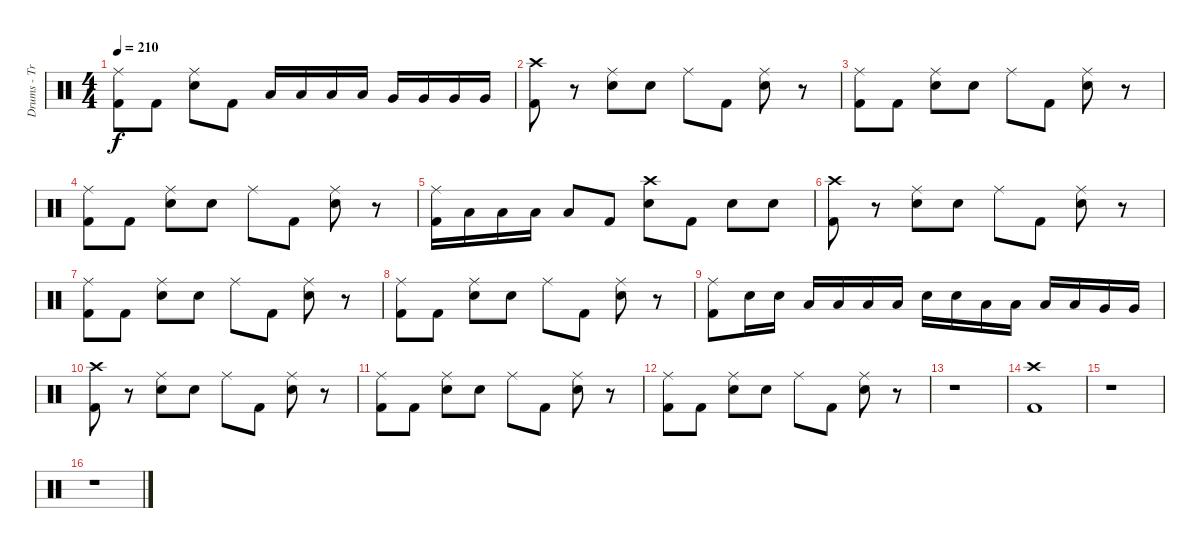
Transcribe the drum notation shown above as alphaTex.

\track ("Drums - Travis Barker" "Drums - Tr") {instrument percussion}
\staff {score}
\articulation defaults
\ts (4 4)
\tempo 210
\clef neutral
\ks c
("Ride (middle)" "Kick (hit) 2").8{dy f} "Kick (hit) 2".8 ("Ride (middle)" "Electric Snare (hit)").8 "Kick (hit) 2".8 "Low Tom (hit)".16 "Low Tom (hit)".16 "Low Tom (hit)".16 "Low Tom (hit)".16 "Very Low Tom (hit)".16 "Very Low Tom (hit)".16 "Very Low Tom (hit)".16 "Very Low Tom (hit)".16 |
("Crash high (hit)" "Kick (hit) 2").8 r.8 ("Ride (middle)" "Electric Snare (hit)").8 "Electric Snare (hit)".8 "Ride (middle)".8 "Kick (hit) 2".8 ("Ride (middle)" "Electric Snare (hit)").8 r.8 |
("Ride (middle)" "Kick (hit) 2").8 "Kick (hit) 2".8 ("Ride (middle)" "Electric Snare (hit)").8 "Electric Snare (hit)".8 "Ride (middle)".8 "Kick (hit) 2".8 ("Ride (middle)" "Electric Snare (hit)").8 r.8 |
("Ride (middle)" "Kick (hit) 2").8 "Kick (hit) 2".8 ("Ride (middle)" "Electric Snare (hit)").8 "Electric Snare (hit)".8 "Ride (middle)".8 "Kick (hit) 2".8 ("Ride (middle)" "Electric Snare (hit)").8 r.8 |
("Ride (middle)" "Kick (hit) 2").16 "Low Tom (hit)".16 "Low Tom (hit)".16 "Low Tom (hit)".16 "Low Tom (hit)".8 "Kick (hit) 2".8 ("Crash high (hit)" "Electric Snare (hit)").8 "Kick (hit) 2".8 "Electric Snare (hit)".8 "Electric Snare (hit)".8 |
("Crash high (hit)" "Kick (hit) 2").8 r.8 ("Ride (middle)" "Electric Snare (hit)").8 "Electric Snare (hit)".8 "Ride (middle)".8 "Kick (hit) 2".8 ("Ride (middle)" "Electric Snare (hit)").8 r.8 |
("Ride (middle)" "Kick (hit) 2").8 "Kick (hit) 2".8 ("Ride (middle)" "Electric Snare (hit)").8 "Electric Snare (hit)".8 "Ride (middle)".8 "Kick (hit) 2".8 ("Ride (middle)" "Electric Snare (hit)").8 r.8 |
("Ride (middle)" "Kick (hit) 2").8 "Kick (hit) 2".8 ("Ride (middle)" "Electric Snare (hit)").8 "Electric Snare (hit)".8 "Ride (middle)".8 "Kick (hit) 2".8 ("Ride (middle)" "Electric Snare (hit)").8 r.8 |
("Ride (middle)" "Kick (hit) 2").8 "Electric Snare (hit)".16 "Electric Snare (hit)".16 "Low Tom (hit)".16 "Low Tom (hit)".16 "Low Tom (hit)".16 "Low Tom (hit)".16 "Electric Snare (hit)".16 "Electric Snare (hit)".16 "Low Tom (hit)".16 "Low Tom (hit)".16 "Low Tom (hit)".16 "Low Tom (hit)".16 "Very Low Tom (hit)".16 "Very Low Tom (hit)".16 |
("Crash high (hit)" "Kick (hit) 2").8 r.8 ("Ride (middle)" "Electric Snare (hit)").8 "Electric Snare (hit)".8 "Ride (middle)".8 "Kick (hit) 2".8 ("Ride (middle)" "Electric Snare (hit)").8 r.8 |
("Ride (middle)" "Kick (hit) 2").8 "Kick (hit) 2".8 ("Ride (middle)" "Electric Snare (hit)").8 "Electric Snare (hit)".8 "Ride (middle)".8 "Kick (hit) 2".8 ("Ride (middle)" "Electric Snare (hit)").8 r.8 |
("Ride (middle)" "Kick (hit) 2").8 "Kick (hit) 2".8 ("Ride (middle)" "Electric Snare (hit)").8 "Electric Snare (hit)".8 "Ride (middle)".8 "Kick (hit) 2".8 ("Ride (middle)" "Electric Snare (hit)").8 r.8 |
r.1 |
("Crash high (hit)" "Kick (hit) 2").1 |
r.1 |
r.1
